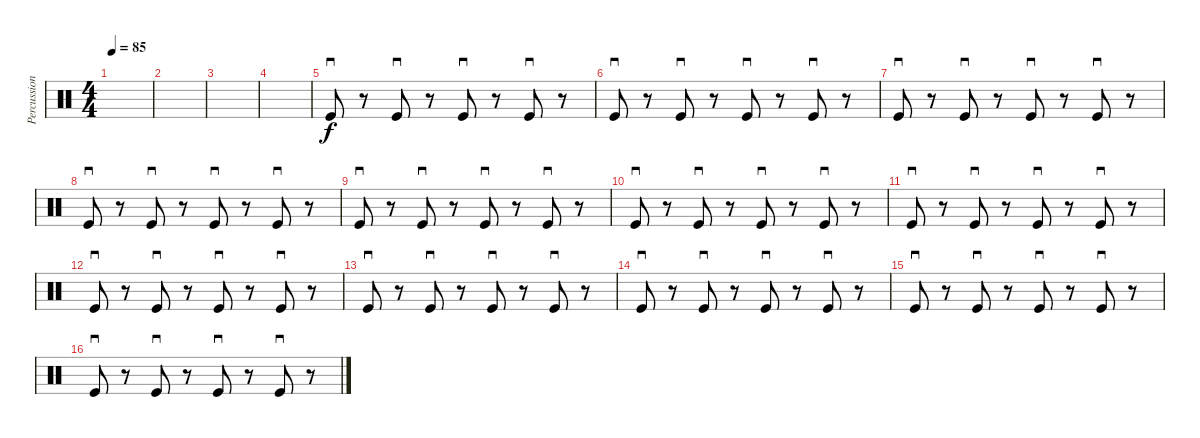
\track ("Percussions" "Percussion") {instrument percussion}
\staff {score}
\articulation defaults
\ts (4 4)
\tempo 85
\clef neutral
\ks c
|
|
|
|
"Kick (hit)".8{sd} r.8 "Kick (hit)".8{sd} r.8 "Kick (hit)".8{sd} r.8 "Kick (hit)".8{sd} r.8 |
"Kick (hit)".8{sd} r.8 "Kick (hit)".8{sd} r.8 "Kick (hit)".8{sd} r.8 "Kick (hit)".8{sd} r.8 |
"Kick (hit)".8{sd} r.8 "Kick (hit)".8{sd} r.8 "Kick (hit)".8{sd} r.8 "Kick (hit)".8{sd} r.8 |
"Kick (hit)".8{sd} r.8 "Kick (hit)".8{sd} r.8 "Kick (hit)".8{sd} r.8 "Kick (hit)".8{sd} r.8 |
"Kick (hit)".8{sd} r.8 "Kick (hit)".8{sd} r.8 "Kick (hit)".8{sd} r.8 "Kick (hit)".8{sd} r.8 |
"Kick (hit)".8{sd} r.8 "Kick (hit)".8{sd} r.8 "Kick (hit)".8{sd} r.8 "Kick (hit)".8{sd} r.8 |
"Kick (hit)".8{sd} r.8 "Kick (hit)".8{sd} r.8 "Kick (hit)".8{sd} r.8 "Kick (hit)".8{sd} r.8 |
"Kick (hit)".8{sd} r.8 "Kick (hit)".8{sd} r.8 "Kick (hit)".8{sd} r.8 "Kick (hit)".8{sd} r.8 |
"Kick (hit)".8{sd} r.8 "Kick (hit)".8{sd} r.8 "Kick (hit)".8{sd} r.8 "Kick (hit)".8{sd} r.8 |
"Kick (hit)".8{sd} r.8 "Kick (hit)".8{sd} r.8 "Kick (hit)".8{sd} r.8 "Kick (hit)".8{sd} r.8 |
"Kick (hit)".8{sd} r.8 "Kick (hit)".8{sd} r.8 "Kick (hit)".8{sd} r.8 "Kick (hit)".8{sd} r.8 |
"Kick (hit)".8{sd} r.8 "Kick (hit)".8{sd} r.8 "Kick (hit)".8{sd} r.8 "Kick (hit)".8{sd} r.8
